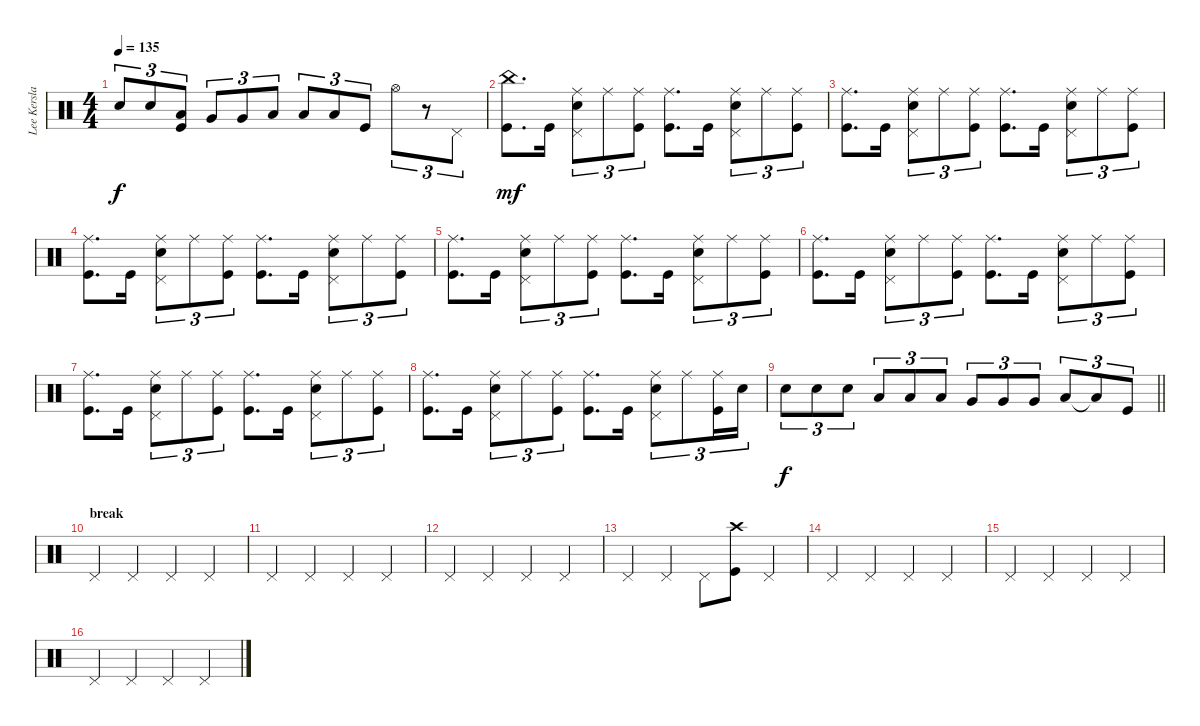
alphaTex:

\track ("Lee Kerslake (drums)" "Lee Kersla") {instrument percussion}
\staff {score}
\articulation defaults
\ts (4 4)
\tempo 135
\clef neutral
\ks c "Snare (hit) 2".8{tu (3 2) dy f} "Snare (hit) 2".8{tu (3 2)}
("Low Floor Tom (hit)" "Kick (hit)").8{tu (3 2)} "Very Low Tom (hit)".8{tu (3 2)} "Very Low Tom (hit)".8{tu (3 2)} "Low Floor Tom (hit)".8{tu (3 2)} "Low Floor Tom (hit)".8{tu (3 2)} "Low Floor Tom (hit)".8{tu (3 2)} "Kick (hit)".8{tu (3 2)} "Hi-Hat (open)".8{tu (3 2)} r.8{tu (3 2)} "Pedal Hi-Hat (hit)".8{tu (3 2)} |
("China (hit)" "Kick (hit)").8{d dy mf} "Kick (hit)".16 ("Ride (middle)" "Pedal Hi-Hat (hit)" "Snare (hit) 2").8{tu (3 2)} "Ride (middle)".8{tu (3 2)} ("Ride (middle)" "Kick (hit)").8{tu (3 2)} ("Ride (middle)" "Kick (hit)").8{d} "Kick (hit)".16 ("Ride (middle)" "Pedal Hi-Hat (hit)" "Snare (hit) 2").8{tu (3 2)} "Ride (middle)".8{tu (3 2)} ("Ride (middle)" "Kick (hit)").8{tu (3 2)} |
("Ride (middle)" "Kick (hit)").8{d} "Kick (hit)".16 ("Ride (middle)" "Pedal Hi-Hat (hit)" "Snare (hit) 2").8{tu (3 2)} "Ride (middle)".8{tu (3 2)} ("Ride (middle)" "Kick (hit)").8{tu (3 2)} ("Ride (middle)" "Kick (hit)").8{d} "Kick (hit)".16 ("Ride (middle)" "Pedal Hi-Hat (hit)" "Snare (hit) 2").8{tu (3 2)} "Ride (middle)".8{tu (3 2)} ("Ride (middle)" "Kick (hit)").8{tu (3 2)} |
("Ride (middle)" "Kick (hit)").8{d} "Kick (hit)".16 ("Ride (middle)" "Pedal Hi-Hat (hit)" "Snare (hit) 2").8{tu (3 2)} "Ride (middle)".8{tu (3 2)} ("Ride (middle)" "Kick (hit)").8{tu (3 2)} ("Ride (middle)" "Kick (hit)").8{d} "Kick (hit)".16 ("Ride (middle)" "Pedal Hi-Hat (hit)" "Snare (hit) 2").8{tu (3 2)} "Ride (middle)".8{tu (3 2)} ("Ride (middle)" "Kick (hit)").8{tu (3 2)} |
("Ride (middle)" "Kick (hit)").8{d} "Kick (hit)".16 ("Ride (middle)" "Pedal Hi-Hat (hit)" "Snare (hit) 2").8{tu (3 2)} "Ride (middle)".8{tu (3 2)} ("Ride (middle)" "Kick (hit)").8{tu (3 2)} ("Ride (middle)" "Kick (hit)").8{d} "Kick (hit)".16 ("Ride (middle)" "Pedal Hi-Hat (hit)" "Snare (hit) 2").8{tu (3 2)} "Ride (middle)".8{tu (3 2)} ("Ride (middle)" "Kick (hit)").8{tu (3 2)} |
("Ride (middle)" "Kick (hit)").8{d} "Kick (hit)".16 ("Ride (middle)" "Pedal Hi-Hat (hit)" "Snare (hit) 2").8{tu (3 2)} "Ride (middle)".8{tu (3 2)} ("Ride (middle)" "Kick (hit)").8{tu (3 2)} ("Ride (middle)" "Kick (hit)").8{d} "Kick (hit)".16 ("Ride (middle)" "Pedal Hi-Hat (hit)" "Snare (hit) 2").8{tu (3 2)} "Ride (middle)".8{tu (3 2)} ("Ride (middle)" "Kick (hit)").8{tu (3 2)} |
("Ride (middle)" "Kick (hit)").8{d} "Kick (hit)".16 ("Ride (middle)" "Pedal Hi-Hat (hit)" "Snare (hit) 2").8{tu (3 2)} "Ride (middle)".8{tu (3 2)} ("Ride (middle)" "Kick (hit)").8{tu (3 2)} ("Ride (middle)" "Kick (hit)").8{d} "Kick (hit)".16 ("Ride (middle)" "Pedal Hi-Hat (hit)" "Snare (hit) 2").8{tu (3 2)} "Ride (middle)".8{tu (3 2)} ("Ride (middle)" "Kick (hit)").8{tu (3 2)} |
("Ride (middle)" "Kick (hit)").8{d} "Kick (hit)".16 ("Ride (middle)" "Pedal Hi-Hat (hit)" "Snare (hit) 2").8{tu (3 2)} "Ride (middle)".8{tu (3 2)} ("Ride (middle)" "Kick (hit)").8{tu (3 2)} ("Ride (middle)" "Kick (hit)").8{d} "Kick (hit)".16 ("Ride (middle)" "Pedal Hi-Hat (hit)" "Snare (hit) 2").8{tu (3 2)} "Ride (middle)".8{tu (3 2)} ("Ride (middle)" "Kick (hit)").16{tu (3 2)} "Snare (hit) 2".16{tu (3 2)} |
\barLineRight lightlight "Snare (hit) 2".8{tu (3 2) dy f} "Snare (hit) 2".8{tu (3 2)} "Snare (hit) 2".8{tu (3 2)} "Low Tom (hit)".8{tu (3 2)} "Low Tom (hit)".8{tu (3 2)} "Low Tom (hit)".8{tu (3 2)} "Very Low Tom (hit)".8{tu (3 2)} "Very Low Tom (hit)".8{tu (3 2)} "Very Low Tom (hit)".8{tu (3 2)} "Low Floor Tom (hit)".8{tu (3 2)} "Low Floor Tom (hit)"{t}.8{tu (3 2)} "Kick (hit)".8{tu (3 2)}
|
\section ("" "break")
"Pedal Hi-Hat (hit)".4 "Pedal Hi-Hat (hit)".4 "Pedal Hi-Hat (hit)".4 "Pedal Hi-Hat (hit)".4 |
"Pedal Hi-Hat (hit)".4 "Pedal Hi-Hat (hit)".4 "Pedal Hi-Hat (hit)".4 "Pedal Hi-Hat (hit)".4 |
"Pedal Hi-Hat (hit)".4 "Pedal Hi-Hat (hit)".4 "Pedal Hi-Hat (hit)".4 "Pedal Hi-Hat (hit)".4 |
"Pedal Hi-Hat (hit)".4 "Pedal Hi-Hat (hit)".4 "Pedal Hi-Hat (hit)".8 ("Crash high (hit)" "Kick (hit)").8 "Pedal Hi-Hat (hit)".4 |
"Pedal Hi-Hat (hit)".4 "Pedal Hi-Hat (hit)".4 "Pedal Hi-Hat (hit)".4 "Pedal Hi-Hat (hit)".4 |
"Pedal Hi-Hat (hit)".4 "Pedal Hi-Hat (hit)".4 "Pedal Hi-Hat (hit)".4 "Pedal Hi-Hat (hit)".4 |
"Pedal Hi-Hat (hit)".4 "Pedal Hi-Hat (hit)".4 "Pedal Hi-Hat (hit)".4 "Pedal Hi-Hat (hit)".4
